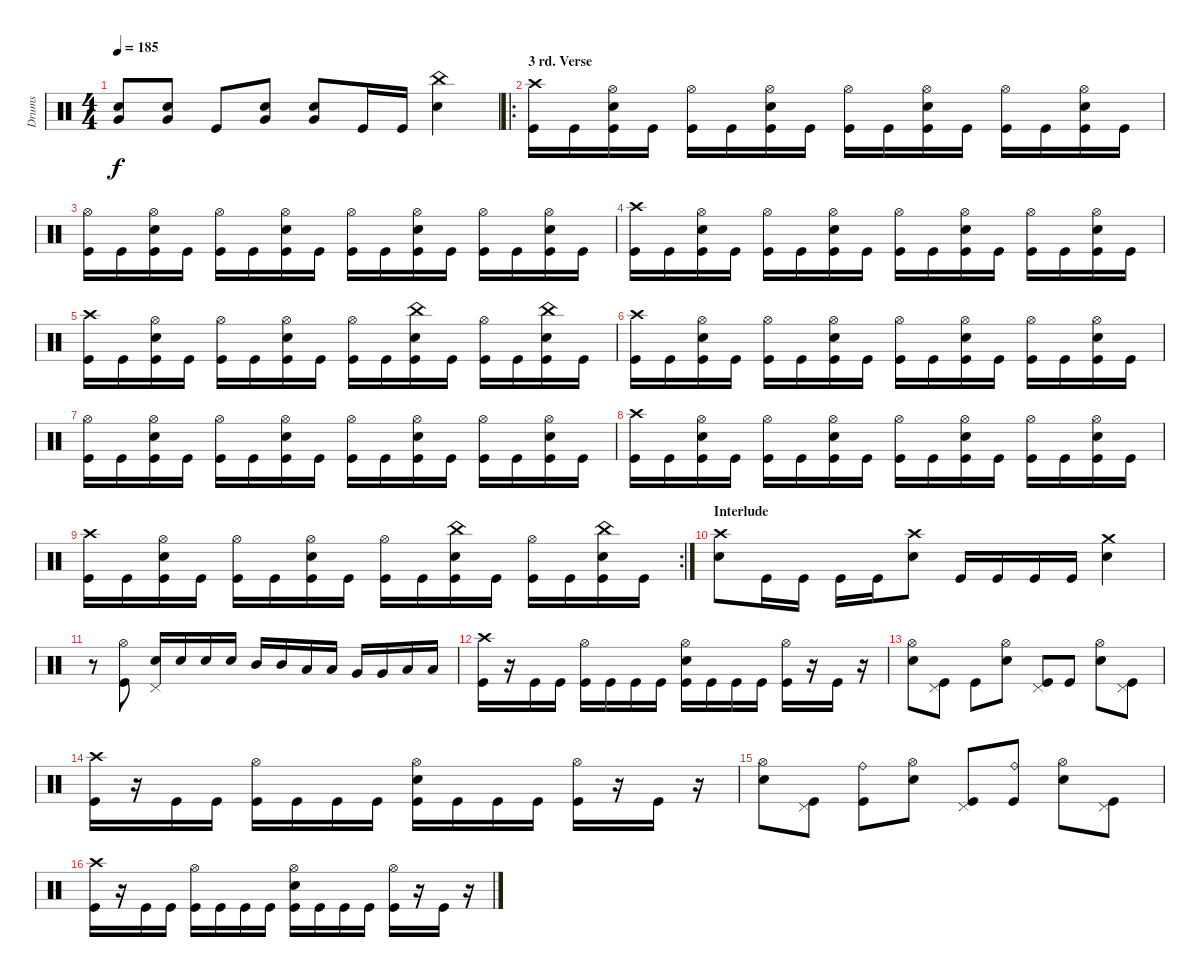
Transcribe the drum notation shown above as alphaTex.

\track ("Drums" "Drums") {instrument percussion}
\staff {score}
\articulation defaults
\ts (4 4)
\tempo 185
\clef neutral
\ks c
("Very Low Tom (hit)" "Electric Snare (hit)").8{dy f} ("Very Low Tom (hit)" "Electric Snare (hit)").8 "Kick (hit)".8 ("Very Low Tom (hit)" "Electric Snare (hit)").8 ("Very Low Tom (hit)" "Electric Snare (hit)").8 "Kick (hit)".16 "Kick (hit)".16 ("China (hit)" "Electric Snare (hit)").4 |
\ro
\section ("" "3 rd. Verse")
("Crash high (hit)" "Kick (hit)").16 "Kick (hit)".16 ("Hi-Hat (open)" "Electric Snare (hit)" "Kick (hit)").16 "Kick (hit)".16 ("Hi-Hat (open)" "Kick (hit)").16 "Kick (hit)".16 ("Hi-Hat (open)" "Electric Snare (hit)" "Kick (hit)").16 "Kick (hit)".16 ("Hi-Hat (open)" "Kick (hit)").16 "Kick (hit)".16 ("Hi-Hat (open)" "Electric Snare (hit)" "Kick (hit)").16 "Kick (hit)".16 ("Hi-Hat (open)" "Kick (hit)").16 "Kick (hit)".16 ("Hi-Hat (open)" "Electric Snare (hit)" "Kick (hit)").16 "Kick (hit)".16 |
("Hi-Hat (open)" "Kick (hit)").16 "Kick (hit)".16 ("Hi-Hat (open)" "Electric Snare (hit)" "Kick (hit)").16 "Kick (hit)".16 ("Hi-Hat (open)" "Kick (hit)").16 "Kick (hit)".16 ("Hi-Hat (open)" "Electric Snare (hit)" "Kick (hit)").16 "Kick (hit)".16 ("Hi-Hat (open)" "Kick (hit)").16 "Kick (hit)".16 ("Hi-Hat (open)" "Electric Snare (hit)" "Kick (hit)").16 "Kick (hit)".16 ("Hi-Hat (open)" "Kick (hit)").16 "Kick (hit)".16 ("Hi-Hat (open)" "Electric Snare (hit)" "Kick (hit)").16 "Kick (hit)".16 |
("Crash high (hit)" "Kick (hit)").16 "Kick (hit)".16 ("Hi-Hat (open)" "Electric Snare (hit)" "Kick (hit)").16 "Kick (hit)".16 ("Hi-Hat (open)" "Kick (hit)").16 "Kick (hit)".16 ("Hi-Hat (open)" "Electric Snare (hit)" "Kick (hit)").16 "Kick (hit)".16 ("Hi-Hat (open)" "Kick (hit)").16 "Kick (hit)".16 ("Hi-Hat (open)" "Electric Snare (hit)" "Kick (hit)").16 "Kick (hit)".16 ("Hi-Hat (open)" "Kick (hit)").16 "Kick (hit)".16 ("Hi-Hat (open)" "Electric Snare (hit)" "Kick (hit)").16 "Kick (hit)".16 |
("Crash high (hit)" "Kick (hit)").16 "Kick (hit)".16 ("Hi-Hat (open)" "Electric Snare (hit)" "Kick (hit)").16 "Kick (hit)".16 ("Hi-Hat (open)" "Kick (hit)").16 "Kick (hit)".16 ("Hi-Hat (open)" "Electric Snare (hit)" "Kick (hit)").16 "Kick (hit)".16 ("Hi-Hat (open)" "Kick (hit)").16 "Kick (hit)".16 ("China (hit)" "Electric Snare (hit)" "Kick (hit)").16 "Kick (hit)".16 ("Hi-Hat (open)" "Kick (hit)").16 "Kick (hit)".16 ("China (hit)" "Electric Snare (hit)" "Kick (hit)").16 "Kick (hit)".16 |
("Crash high (hit)" "Kick (hit)").16 "Kick (hit)".16 ("Hi-Hat (open)" "Electric Snare (hit)" "Kick (hit)").16 "Kick (hit)".16 ("Hi-Hat (open)" "Kick (hit)").16 "Kick (hit)".16 ("Hi-Hat (open)" "Electric Snare (hit)" "Kick (hit)").16 "Kick (hit)".16 ("Hi-Hat (open)" "Kick (hit)").16 "Kick (hit)".16 ("Hi-Hat (open)" "Electric Snare (hit)" "Kick (hit)").16 "Kick (hit)".16 ("Hi-Hat (open)" "Kick (hit)").16 "Kick (hit)".16 ("Hi-Hat (open)" "Electric Snare (hit)" "Kick (hit)").16 "Kick (hit)".16 |
("Hi-Hat (open)" "Kick (hit)").16 "Kick (hit)".16 ("Hi-Hat (open)" "Electric Snare (hit)" "Kick (hit)").16 "Kick (hit)".16 ("Hi-Hat (open)" "Kick (hit)").16 "Kick (hit)".16 ("Hi-Hat (open)" "Electric Snare (hit)" "Kick (hit)").16 "Kick (hit)".16 ("Hi-Hat (open)" "Kick (hit)").16 "Kick (hit)".16 ("Hi-Hat (open)" "Electric Snare (hit)" "Kick (hit)").16 "Kick (hit)".16 ("Hi-Hat (open)" "Kick (hit)").16 "Kick (hit)".16 ("Hi-Hat (open)" "Electric Snare (hit)" "Kick (hit)").16 "Kick (hit)".16 |
("Crash high (hit)" "Kick (hit)").16 "Kick (hit)".16 ("Hi-Hat (open)" "Electric Snare (hit)" "Kick (hit)").16 "Kick (hit)".16 ("Hi-Hat (open)" "Kick (hit)").16 "Kick (hit)".16 ("Hi-Hat (open)" "Electric Snare (hit)" "Kick (hit)").16 "Kick (hit)".16 ("Hi-Hat (open)" "Kick (hit)").16 "Kick (hit)".16 ("Hi-Hat (open)" "Electric Snare (hit)" "Kick (hit)").16 "Kick (hit)".16 ("Hi-Hat (open)" "Kick (hit)").16 "Kick (hit)".16 ("Hi-Hat (open)" "Electric Snare (hit)" "Kick (hit)").16 "Kick (hit)".16 |
\rc 2
("Crash high (hit)" "Kick (hit)").16 "Kick (hit)".16 ("Hi-Hat (open)" "Electric Snare (hit)" "Kick (hit)").16 "Kick (hit)".16 ("Hi-Hat (open)" "Kick (hit)").16 "Kick (hit)".16 ("Hi-Hat (open)" "Electric Snare (hit)" "Kick (hit)").16 "Kick (hit)".16 ("Hi-Hat (open)" "Kick (hit)").16 "Kick (hit)".16 ("China (hit)" "Electric Snare (hit)" "Kick (hit)").16 "Kick (hit)".16 ("Hi-Hat (open)" "Kick (hit)").16 "Kick (hit)".16 ("China (hit)" "Electric Snare (hit)" "Kick (hit)").16 "Kick (hit)".16 |
\section ("" "Interlude")
("Crash high (hit)" "Electric Snare (hit)").8 "Kick (hit)".16 "Kick (hit)".16 "Kick (hit)".16 "Kick (hit)".16 ("Crash high (hit)" "Electric Snare (hit)").8 "Kick (hit)".16 "Kick (hit)".16 "Kick (hit)".16 "Kick (hit)".16 ("Crash medium (hit)" "Electric Snare (hit)").4 |
r.8 ("Hi-Hat (open)" "Kick (hit)").8 ("Pedal Hi-Hat (hit)" "Electric Snare (hit)").16 "Electric Snare (hit)".16 "Electric Snare (hit)".16 "Electric Snare (hit)".16 "Mid Tom (hit)".16 "Mid Tom (hit)".16 "Low Tom (hit)".16 "Low Tom (hit)".16 "Very Low Tom (hit)".16 "Very Low Tom (hit)".16 "Low Floor Tom (hit)".16 "Low Floor Tom (hit)".16 |
("Crash high (hit)" "Kick (hit)").16 r.16 "Kick (hit)".16 "Kick (hit)".16 ("Hi-Hat (open)" "Kick (hit)").16 "Kick (hit)".16 "Kick (hit)".16 "Kick (hit)".16 ("Hi-Hat (open)" "Electric Snare (hit)" "Kick (hit)").16 "Kick (hit)".16 "Kick (hit)".16 "Kick (hit)".16 ("Hi-Hat (open)" "Kick (hit)").16 r.16 "Kick (hit)".16 r.16 |
("Hi-Hat (open)" "Electric Snare (hit)").8 ("Pedal Hi-Hat (hit)" "Kick (hit)").8 "Kick (hit)".8 ("Hi-Hat (open)" "Electric Snare (hit)").8 ("Pedal Hi-Hat (hit)" "Kick (hit)").8 "Kick (hit)".8 ("Hi-Hat (open)" "Electric Snare (hit)").8 ("Pedal Hi-Hat (hit)" "Kick (hit)").8 |
("Crash high (hit)" "Kick (hit)").16 r.16 "Kick (hit)".16 "Kick (hit)".16 ("Hi-Hat (open)" "Kick (hit)").16 "Kick (hit)".16 "Kick (hit)".16 "Kick (hit)".16 ("Hi-Hat (open)" "Electric Snare (hit)" "Kick (hit)").16 "Kick (hit)".16 "Kick (hit)".16 "Kick (hit)".16 ("Hi-Hat (open)" "Kick (hit)").16 r.16 "Kick (hit)".16 r.16 |
("Hi-Hat (open)" "Electric Snare (hit)").8 ("Pedal Hi-Hat (hit)" "Kick (hit)").8 ("Ride (bell)" "Kick (hit)").8 ("Hi-Hat (open)" "Electric Snare (hit)").8 ("Pedal Hi-Hat (hit)" "Kick (hit)").8 ("Ride (bell)" "Kick (hit)").8 ("Hi-Hat (open)" "Electric Snare (hit)").8 ("Pedal Hi-Hat (hit)" "Kick (hit)").8 |
("Crash high (hit)" "Kick (hit)").16 r.16 "Kick (hit)".16 "Kick (hit)".16 ("Hi-Hat (open)" "Kick (hit)").16 "Kick (hit)".16 "Kick (hit)".16 "Kick (hit)".16 ("Hi-Hat (open)" "Electric Snare (hit)" "Kick (hit)").16 "Kick (hit)".16 "Kick (hit)".16 "Kick (hit)".16 ("Hi-Hat (open)" "Kick (hit)").16 r.16 "Kick (hit)".16 r.16
